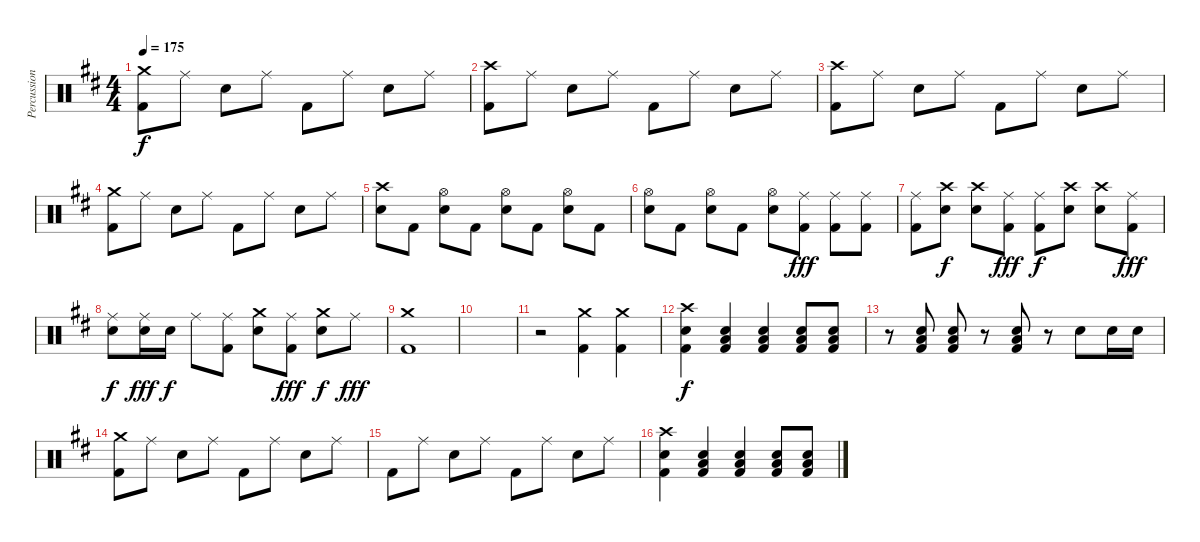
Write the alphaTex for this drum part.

\track ("Percussion" "Percussion") {instrument percussion}
\staff {score}
\articulation defaults
\ts (4 4)
\tempo 175
\clef neutral
\ks d
("Crash medium (hit)" "Kick (hit) 2").8{dy f} "Ride (middle)".8 "Electric Snare (hit)".8 "Ride (middle)".8 "Kick (hit) 2".8 "Ride (middle)".8 "Electric Snare (hit)".8 "Ride (middle)".8 |
("Crash high (hit)" "Kick (hit) 2").8 "Ride (middle)".8 "Electric Snare (hit)".8 "Ride (middle)".8 "Kick (hit) 2".8 "Ride (middle)".8 "Electric Snare (hit)".8 "Ride (middle)".8 |
("Crash high (hit)" "Kick (hit) 2").8 "Ride (middle)".8 "Electric Snare (hit)".8 "Ride (middle)".8 "Kick (hit) 2".8 "Ride (middle)".8 "Electric Snare (hit)".8 "Ride (middle)".8 |
("Crash medium (hit)" "Kick (hit) 2").8 "Ride (middle)".8 "Electric Snare (hit)".8 "Ride (middle)".8 "Kick (hit) 2".8 "Ride (middle)".8 "Electric Snare (hit)".8 "Ride (middle)".8 |
("Crash high (hit)" "Electric Snare (hit)").8 "Kick (hit) 2".8 ("Hi-Hat (open)" "Electric Snare (hit)").8 "Kick (hit) 2".8 ("Hi-Hat (open)" "Electric Snare (hit)").8 "Kick (hit) 2".8 ("Hi-Hat (open)" "Electric Snare (hit)").8 "Kick (hit) 2".8 |
("Hi-Hat (open)" "Electric Snare (hit)").8 "Kick (hit) 2".8 ("Hi-Hat (open)" "Electric Snare (hit)").8 "Kick (hit) 2".8 ("Hi-Hat (open)" "Electric Snare (hit)").8 ("Ride (middle)" "Kick (hit) 2").8{dy fff} ("Ride (middle)" "Kick (hit) 2").8 ("Ride (middle)" "Kick (hit) 2").8 |
("Ride (middle)" "Kick (hit) 2").8 ("Crash high (hit)" "Electric Snare (hit)").8{dy f} ("Crash high (hit)" "Electric Snare (hit)").8 ("Ride (middle)" "Kick (hit) 2").8{dy fff} ("Ride (middle)" "Kick (hit) 2").8{dy f} ("Crash high (hit)" "Electric Snare (hit)").8 ("Crash high (hit)" "Electric Snare (hit)").8 ("Ride (middle)" "Kick (hit) 2").8{dy fff} |
("Ride (middle)" "Electric Snare (hit)").8{dy f} ("Ride (middle)" "Electric Snare (hit)").16{dy fff} "Electric Snare (hit)".16{dy f} "Ride (middle)".8 ("Ride (middle)" "Kick (hit) 2").8 ("Crash medium (hit)" "Electric Snare (hit)").8 ("Ride (middle)" "Kick (hit) 2").8{dy fff} ("Crash medium (hit)" "Electric Snare (hit)").8{dy f} "Ride (middle)".8{dy fff} |
("Crash medium (hit)" "Kick (hit) 2").1 |
|
r.2 ("Crash medium (hit)" "Kick (hit) 2").4 ("Crash medium (hit)" "Kick (hit) 2").4 |
("Crash high (hit)" "Electric Snare (hit)" "Kick (hit) 2").4{dy f} ("Low Floor Tom (hit)" "Electric Snare (hit)" "Kick (hit) 2").4 ("Low Floor Tom (hit)" "Electric Snare (hit)" "Kick (hit) 2").4 ("Low Floor Tom (hit)" "Electric Snare (hit)" "Kick (hit) 2").8 ("Low Floor Tom (hit)" "Electric Snare (hit)" "Kick (hit) 2").8 |
r.8 ("Low Floor Tom (hit)" "Electric Snare (hit)" "Kick (hit) 2").8 ("Low Floor Tom (hit)" "Electric Snare (hit)" "Kick (hit) 2").8 r.8 ("Low Floor Tom (hit)" "Electric Snare (hit)" "Kick (hit) 2").8 r.8 "Electric Snare (hit)".8 "Electric Snare (hit)".16 "Electric Snare (hit)".16 |
("Crash medium (hit)" "Kick (hit) 2").8 "Ride (middle)".8 "Electric Snare (hit)".8 "Ride (middle)".8 "Kick (hit) 2".8 "Ride (middle)".8 "Electric Snare (hit)".8 "Ride (middle)".8 |
"Kick (hit) 2".8 "Ride (middle)".8 "Electric Snare (hit)".8 "Ride (middle)".8 "Kick (hit) 2".8 "Ride (middle)".8 "Electric Snare (hit)".8 "Ride (middle)".8 |
("Crash high (hit)" "Electric Snare (hit)" "Kick (hit) 2").4 ("Low Floor Tom (hit)" "Electric Snare (hit)" "Kick (hit) 2").4 ("Low Floor Tom (hit)" "Electric Snare (hit)" "Kick (hit) 2").4 ("Low Floor Tom (hit)" "Electric Snare (hit)" "Kick (hit) 2").8 ("Low Floor Tom (hit)" "Electric Snare (hit)" "Kick (hit) 2").8
